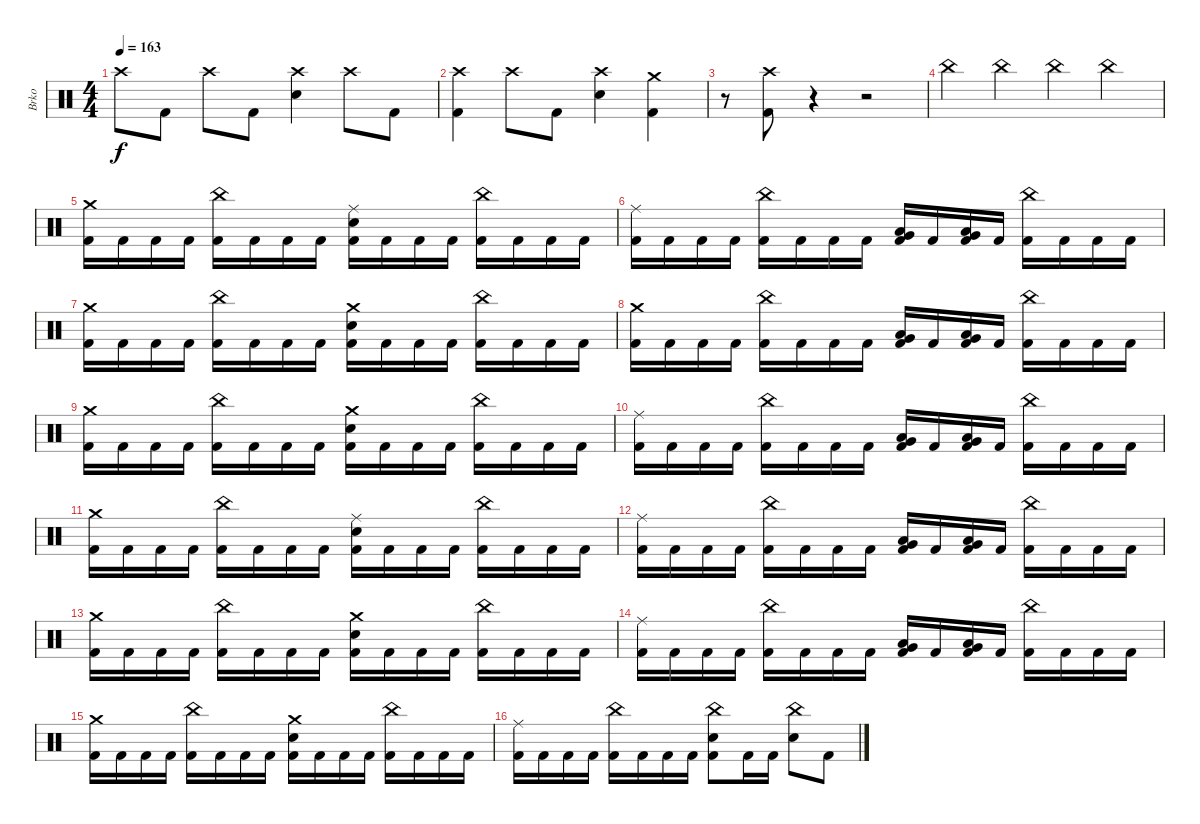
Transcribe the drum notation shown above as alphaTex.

\track ("Brko" "Brko") {instrument percussion}
\staff {score}
\articulation defaults
\ts (4 4)
\tempo 163
\clef neutral
\ks c "Crash high (hit)".8{dy f} "Kick (hit) 2".8 "Crash high (hit)".8 "Kick (hit) 2".8
("Crash high (hit)" "Electric Snare (hit)").4 "Crash high (hit)".8 "Kick (hit) 2".8 |
("Crash high (hit)" "Kick (hit) 2").4 "Crash high (hit)".8 "Kick (hit) 2".8 ("Crash high (hit)" "Electric Snare (hit)").4 ("Crash medium (hit)" "Kick (hit) 2").4 |
r.8 ("Crash high (hit)" "Kick (hit) 2").8 r.4 r.2 |
"China (hit)".4 "China (hit)".4 "China (hit)".4 "China (hit)".4 |
("Crash medium (hit)" "Kick (hit) 2").16 "Kick (hit) 2".16 "Kick (hit) 2".16 "Kick (hit) 2".16 ("China (hit)" "Kick (hit) 2").16 "Kick (hit) 2".16 "Kick (hit) 2".16 "Kick (hit) 2".16 ("Ride (middle)" "Electric Snare (hit)" "Kick (hit) 2").16 "Kick (hit) 2".16 "Kick (hit) 2".16 "Kick (hit) 2".16 ("China (hit)" "Kick (hit) 2").16 "Kick (hit) 2".16 "Kick (hit) 2".16 "Kick (hit) 2".16 |
("Ride (middle)" "Kick (hit) 2").16 "Kick (hit) 2".16 "Kick (hit) 2".16 "Kick (hit) 2".16 ("China (hit)" "Kick (hit) 2").16 "Kick (hit) 2".16 "Kick (hit) 2".16 "Kick (hit) 2".16 ("Low Tom (hit)" "Very Low Tom (hit)" "Kick (hit) 2").16 "Kick (hit) 2".16 ("Low Tom (hit)" "Very Low Tom (hit)" "Kick (hit) 2").16 "Kick (hit) 2".16 ("China (hit)" "Kick (hit) 2").16 "Kick (hit) 2".16 "Kick (hit) 2".16 "Kick (hit) 2".16 |
("Crash medium (hit)" "Kick (hit) 2").16 "Kick (hit) 2".16 "Kick (hit) 2".16 "Kick (hit) 2".16 ("China (hit)" "Kick (hit) 2").16 "Kick (hit) 2".16 "Kick (hit) 2".16 "Kick (hit) 2".16 ("Crash medium (hit)" "Electric Snare (hit)" "Kick (hit) 2").16 "Kick (hit) 2".16 "Kick (hit) 2".16 "Kick (hit) 2".16 ("China (hit)" "Kick (hit) 2").16 "Kick (hit) 2".16 "Kick (hit) 2".16 "Kick (hit) 2".16 |
("Crash medium (hit)" "Kick (hit) 2").16 "Kick (hit) 2".16 "Kick (hit) 2".16 "Kick (hit) 2".16 ("China (hit)" "Kick (hit) 2").16 "Kick (hit) 2".16 "Kick (hit) 2".16 "Kick (hit) 2".16 ("Low Tom (hit)" "Very Low Tom (hit)" "Kick (hit) 2").16 "Kick (hit) 2".16 ("Low Tom (hit)" "Very Low Tom (hit)" "Kick (hit) 2").16 "Kick (hit) 2".16 ("China (hit)" "Kick (hit) 2").16 "Kick (hit) 2".16 "Kick (hit) 2".16 "Kick (hit) 2".16 |
("Crash medium (hit)" "Kick (hit) 2").16 "Kick (hit) 2".16 "Kick (hit) 2".16 "Kick (hit) 2".16 ("China (hit)" "Kick (hit) 2").16 "Kick (hit) 2".16 "Kick (hit) 2".16 "Kick (hit) 2".16 ("Crash medium (hit)" "Electric Snare (hit)" "Kick (hit) 2").16 "Kick (hit) 2".16 "Kick (hit) 2".16 "Kick (hit) 2".16 ("China (hit)" "Kick (hit) 2").16 "Kick (hit) 2".16 "Kick (hit) 2".16 "Kick (hit) 2".16 |
("Ride (middle)" "Kick (hit) 2").16 "Kick (hit) 2".16 "Kick (hit) 2".16 "Kick (hit) 2".16 ("China (hit)" "Kick (hit) 2").16 "Kick (hit) 2".16 "Kick (hit) 2".16 "Kick (hit) 2".16 ("Low Tom (hit)" "Very Low Tom (hit)" "Kick (hit) 2").16 "Kick (hit) 2".16 ("Low Tom (hit)" "Very Low Tom (hit)" "Kick (hit) 2").16 "Kick (hit) 2".16 ("China (hit)" "Kick (hit) 2").16 "Kick (hit) 2".16 "Kick (hit) 2".16 "Kick (hit) 2".16 |
("Crash medium (hit)" "Kick (hit) 2").16 "Kick (hit) 2".16 "Kick (hit) 2".16 "Kick (hit) 2".16 ("China (hit)" "Kick (hit) 2").16 "Kick (hit) 2".16 "Kick (hit) 2".16 "Kick (hit) 2".16 ("Ride (middle)" "Electric Snare (hit)" "Kick (hit) 2").16 "Kick (hit) 2".16 "Kick (hit) 2".16 "Kick (hit) 2".16 ("China (hit)" "Kick (hit) 2").16 "Kick (hit) 2".16 "Kick (hit) 2".16 "Kick (hit) 2".16 |
("Ride (middle)" "Kick (hit) 2").16 "Kick (hit) 2".16 "Kick (hit) 2".16 "Kick (hit) 2".16 ("China (hit)" "Kick (hit) 2").16 "Kick (hit) 2".16 "Kick (hit) 2".16 "Kick (hit) 2".16 ("Low Tom (hit)" "Very Low Tom (hit)" "Kick (hit) 2").16 "Kick (hit) 2".16 ("Low Tom (hit)" "Very Low Tom (hit)" "Kick (hit) 2").16 "Kick (hit) 2".16 ("China (hit)" "Kick (hit) 2").16 "Kick (hit) 2".16 "Kick (hit) 2".16 "Kick (hit) 2".16 |
("Crash medium (hit)" "Kick (hit) 2").16 "Kick (hit) 2".16 "Kick (hit) 2".16 "Kick (hit) 2".16 ("China (hit)" "Kick (hit) 2").16 "Kick (hit) 2".16 "Kick (hit) 2".16 "Kick (hit) 2".16 ("Crash medium (hit)" "Electric Snare (hit)" "Kick (hit) 2").16 "Kick (hit) 2".16 "Kick (hit) 2".16 "Kick (hit) 2".16 ("China (hit)" "Kick (hit) 2").16 "Kick (hit) 2".16 "Kick (hit) 2".16 "Kick (hit) 2".16 |
("Ride (middle)" "Kick (hit) 2").16 "Kick (hit) 2".16 "Kick (hit) 2".16 "Kick (hit) 2".16 ("China (hit)" "Kick (hit) 2").16 "Kick (hit) 2".16 "Kick (hit) 2".16 "Kick (hit) 2".16 ("Low Tom (hit)" "Very Low Tom (hit)" "Kick (hit) 2").16 "Kick (hit) 2".16 ("Low Tom (hit)" "Very Low Tom (hit)" "Kick (hit) 2").16 "Kick (hit) 2".16 ("China (hit)" "Kick (hit) 2").16 "Kick (hit) 2".16 "Kick (hit) 2".16 "Kick (hit) 2".16 |
("Crash medium (hit)" "Kick (hit) 2").16 "Kick (hit) 2".16 "Kick (hit) 2".16 "Kick (hit) 2".16 ("China (hit)" "Kick (hit) 2").16 "Kick (hit) 2".16 "Kick (hit) 2".16 "Kick (hit) 2".16 ("Crash medium (hit)" "Electric Snare (hit)" "Kick (hit) 2").16 "Kick (hit) 2".16 "Kick (hit) 2".16 "Kick (hit) 2".16 ("China (hit)" "Kick (hit) 2").16 "Kick (hit) 2".16 "Kick (hit) 2".16 "Kick (hit) 2".16 |
("Ride (middle)" "Kick (hit) 2").16 "Kick (hit) 2".16 "Kick (hit) 2".16 "Kick (hit) 2".16 ("China (hit)" "Kick (hit) 2").16 "Kick (hit) 2".16 "Kick (hit) 2".16 "Kick (hit) 2".16 ("China (hit)" "Electric Snare (hit)" "Kick (hit) 2").8 "Kick (hit) 2".16 "Kick (hit) 2".16 ("China (hit)" "Electric Snare (hit)").8 "Kick (hit) 2".8
